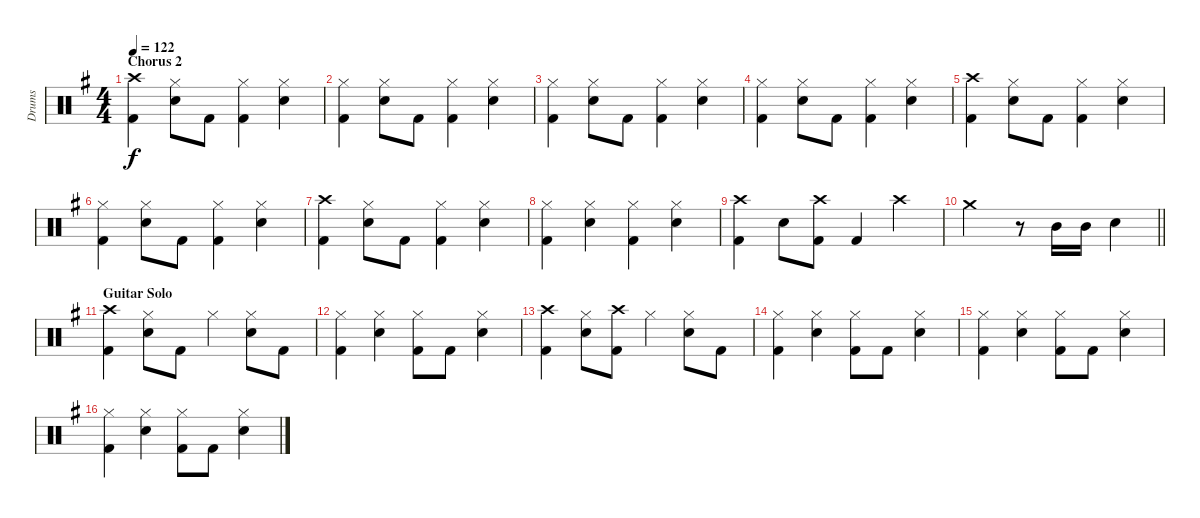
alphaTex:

\track ("Drums" "Drums") {instrument percussion}
\staff {score}
\articulation defaults
\ts (4 4)
\section ("" "Chorus 2")
\tempo 122
\clef neutral
\ks eminor
("Crash high (hit)" "Kick (hit) 2").4{dy f} ("Hi-Hat (closed)" "Electric Snare (hit)").8 "Kick (hit) 2".8 ("Hi-Hat (closed)" "Kick (hit) 2").4 ("Hi-Hat (closed)" "Electric Snare (hit)").4 |
("Hi-Hat (closed)" "Kick (hit) 2").4 ("Hi-Hat (closed)" "Electric Snare (hit)").8 "Kick (hit) 2".8 ("Hi-Hat (closed)" "Kick (hit) 2").4 ("Hi-Hat (closed)" "Electric Snare (hit)").4 |
("Hi-Hat (closed)" "Kick (hit) 2").4 ("Hi-Hat (closed)" "Electric Snare (hit)").8 "Kick (hit) 2".8 ("Hi-Hat (closed)" "Kick (hit) 2").4 ("Hi-Hat (closed)" "Electric Snare (hit)").4 |
("Hi-Hat (closed)" "Kick (hit) 2").4 ("Hi-Hat (closed)" "Electric Snare (hit)").8 "Kick (hit) 2".8 ("Hi-Hat (closed)" "Kick (hit) 2").4 ("Hi-Hat (closed)" "Electric Snare (hit)").4 |
("Crash high (hit)" "Kick (hit) 2").4 ("Hi-Hat (closed)" "Electric Snare (hit)").8 "Kick (hit) 2".8 ("Hi-Hat (closed)" "Kick (hit) 2").4 ("Hi-Hat (closed)" "Electric Snare (hit)").4 |
("Hi-Hat (closed)" "Kick (hit) 2").4 ("Hi-Hat (closed)" "Electric Snare (hit)").8 "Kick (hit) 2".8 ("Hi-Hat (closed)" "Kick (hit) 2").4 ("Hi-Hat (closed)" "Electric Snare (hit)").4 |
("Crash high (hit)" "Kick (hit) 2").4 ("Hi-Hat (closed)" "Electric Snare (hit)").8 "Kick (hit) 2".8 ("Hi-Hat (closed)" "Kick (hit) 2").4 ("Hi-Hat (closed)" "Electric Snare (hit)").4 |
("Hi-Hat (closed)" "Kick (hit) 2").4 ("Hi-Hat (closed)" "Electric Snare (hit)").4 ("Hi-Hat (closed)" "Kick (hit) 2").4 ("Hi-Hat (closed)" "Electric Snare (hit)").4 |
("Crash high (hit)" "Kick (hit) 2").4 "Electric Snare (hit)".8 ("Crash high (hit)" "Kick (hit) 2").8 "Kick (hit) 2".4 "Crash high (hit)".4 |
\barLineRight lightlight "Crash medium (hit)".2
r.8 "Mid Tom (hit)".16 "Mid Tom (hit)".16 "Electric Snare (hit)".4 |
\section ("" "Guitar Solo")
("Crash high (hit)" "Kick (hit) 2").4 ("Hi-Hat (closed)" "Electric Snare (hit)").8 "Kick (hit) 2".8 "Hi-Hat (closed)".4 ("Hi-Hat (closed)" "Electric Snare (hit)").8 "Kick (hit) 2".8 |
("Hi-Hat (closed)" "Kick (hit) 2").4 ("Hi-Hat (closed)" "Electric Snare (hit)").4 ("Hi-Hat (closed)" "Kick (hit) 2").8 "Kick (hit) 2".8 ("Hi-Hat (closed)" "Electric Snare (hit)").4 |
("Crash high (hit)" "Kick (hit) 2").4 ("Hi-Hat (closed)" "Electric Snare (hit)").8 ("Crash high (hit)" "Kick (hit) 2").8 "Hi-Hat (closed)".4 ("Hi-Hat (closed)" "Electric Snare (hit)").8 "Kick (hit) 2".8 |
("Hi-Hat (closed)" "Kick (hit) 2").4 ("Hi-Hat (closed)" "Electric Snare (hit)").4 ("Hi-Hat (closed)" "Kick (hit) 2").8 "Kick (hit) 2".8 ("Hi-Hat (closed)" "Electric Snare (hit)").4 |
("Hi-Hat (closed)" "Kick (hit) 2").4 ("Hi-Hat (closed)" "Electric Snare (hit)").4 ("Hi-Hat (closed)" "Kick (hit) 2").8 "Kick (hit) 2".8 ("Hi-Hat (closed)" "Electric Snare (hit)").4 |
("Hi-Hat (closed)" "Kick (hit) 2").4 ("Hi-Hat (closed)" "Electric Snare (hit)").4 ("Hi-Hat (closed)" "Kick (hit) 2").8 "Kick (hit) 2".8 ("Hi-Hat (closed)" "Electric Snare (hit)").4
